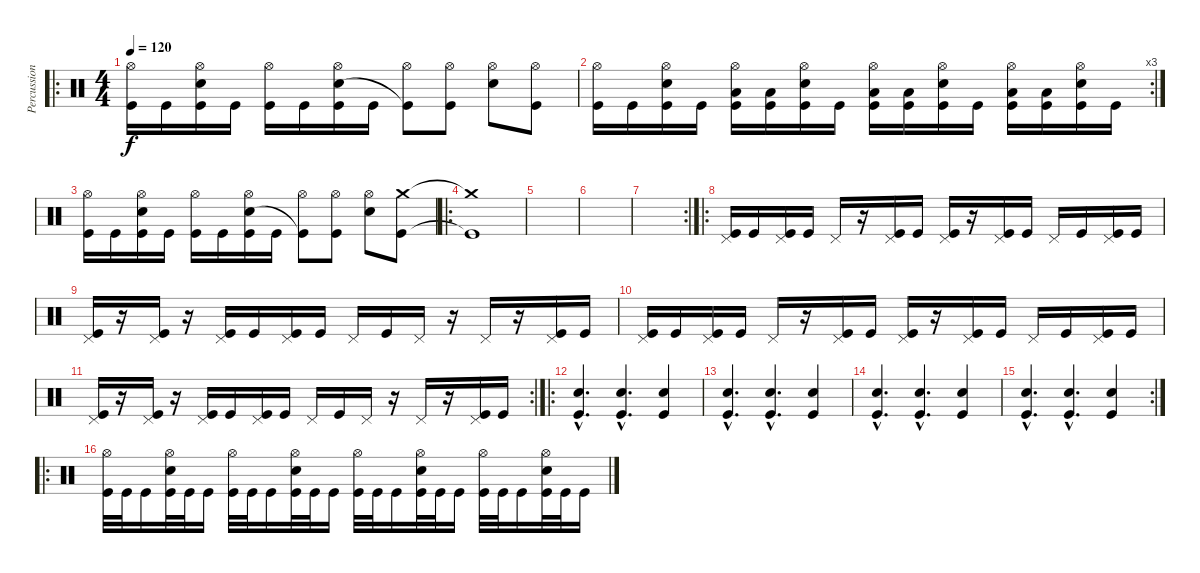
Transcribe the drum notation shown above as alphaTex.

\track ("Percussion" "Percussion") {instrument percussion}
\staff {score}
\articulation defaults
\ro
\ts (4 4)
\tempo 120
\clef neutral
\ks c
("Hi-Hat (open)" "Kick (hit)").16{dy f} "Kick (hit)".16 ("Hi-Hat (open)" "Snare (hit) 2" "Kick (hit)").16 "Kick (hit)".16 ("Hi-Hat (open)" "Kick (hit)").16 "Kick (hit)".16 ("Hi-Hat (open)" "Snare (hit) 2" "Kick (hit)").16 "Kick (hit)".16 ("Hi-Hat (open)" "Kick (hit)"{t}).8 ("Hi-Hat (open)" "Kick (hit)").8 ("Hi-Hat (open)" "Snare (hit) 2").8 ("Hi-Hat (open)" "Kick (hit)").8 |
\rc 3
("Hi-Hat (open)" "Kick (hit)").16 "Kick (hit)".16 ("Hi-Hat (open)" "Snare (hit) 2" "Kick (hit)").16 "Kick (hit)".16 ("Hi-Hat (open)" "Low Floor Tom (hit)" "Kick (hit)").16 ("Low Floor Tom (hit)" "Kick (hit)").16 ("Hi-Hat (open)" "Snare (hit) 2" "Kick (hit)").16 "Kick (hit)".16 ("Hi-Hat (open)" "Low Floor Tom (hit)" "Kick (hit)").16 ("Low Floor Tom (hit)" "Kick (hit)").16 ("Hi-Hat (open)" "Snare (hit) 2" "Kick (hit)").16 "Kick (hit)".16 ("Hi-Hat (open)" "Low Floor Tom (hit)" "Kick (hit)").16 ("Low Floor Tom (hit)" "Kick (hit)").16 ("Hi-Hat (open)" "Snare (hit) 2" "Kick (hit)").16 "Kick (hit)".16 |
("Hi-Hat (open)" "Kick (hit)").16 "Kick (hit)".16 ("Hi-Hat (open)" "Snare (hit) 2" "Kick (hit)").16 "Kick (hit)".16 ("Hi-Hat (open)" "Kick (hit)").16 "Kick (hit)".16 ("Hi-Hat (open)" "Snare (hit) 2" "Kick (hit)").16 "Kick (hit)".16 ("Hi-Hat (open)" "Kick (hit)"{t}).8 ("Hi-Hat (open)" "Kick (hit)").8 ("Hi-Hat (open)" "Snare (hit) 2").8 ("Crash medium (hit)" "Kick (hit)").8 |
\ro
("Crash medium (hit)"{t} "Kick (hit)"{t}).1 |
|
|
\rc 2
|
\ro
("Pedal Hi-Hat (hit)" "Kick (hit)").16 "Kick (hit)".16 ("Pedal Hi-Hat (hit)" "Kick (hit)").16 "Kick (hit)".16 "Pedal Hi-Hat (hit)".16 r.16 ("Pedal Hi-Hat (hit)" "Kick (hit)").16 "Kick (hit)".16 ("Pedal Hi-Hat (hit)" "Kick (hit)").16 r.16 ("Pedal Hi-Hat (hit)" "Kick (hit)").16 "Kick (hit)".16 "Pedal Hi-Hat (hit)".16 "Kick (hit)".16 ("Pedal Hi-Hat (hit)" "Kick (hit)").16 "Kick (hit)".16 |
("Pedal Hi-Hat (hit)" "Kick (hit)").16 r.16 ("Pedal Hi-Hat (hit)" "Kick (hit)").16 r.16 ("Pedal Hi-Hat (hit)" "Kick (hit)").16 "Kick (hit)".16 ("Pedal Hi-Hat (hit)" "Kick (hit)").16 "Kick (hit)".16 "Pedal Hi-Hat (hit)".16 "Kick (hit)".16 "Pedal Hi-Hat (hit)".16 r.16 "Pedal Hi-Hat (hit)".16 r.16 ("Pedal Hi-Hat (hit)" "Kick (hit)").16 "Kick (hit)".16 |
("Pedal Hi-Hat (hit)" "Kick (hit)").16 "Kick (hit)".16 ("Pedal Hi-Hat (hit)" "Kick (hit)").16 "Kick (hit)".16 "Pedal Hi-Hat (hit)".16 r.16 ("Pedal Hi-Hat (hit)" "Kick (hit)").16 "Kick (hit)".16 ("Pedal Hi-Hat (hit)" "Kick (hit)").16 r.16 ("Pedal Hi-Hat (hit)" "Kick (hit)").16 "Kick (hit)".16 "Pedal Hi-Hat (hit)".16 "Kick (hit)".16 ("Pedal Hi-Hat (hit)" "Kick (hit)").16 "Kick (hit)".16 |
\rc 2
("Pedal Hi-Hat (hit)" "Kick (hit)").16 r.16 ("Pedal Hi-Hat (hit)" "Kick (hit)").16 r.16 ("Pedal Hi-Hat (hit)" "Kick (hit)").16 "Kick (hit)".16 ("Pedal Hi-Hat (hit)" "Kick (hit)").16 "Kick (hit)".16 "Pedal Hi-Hat (hit)".16 "Kick (hit)".16 "Pedal Hi-Hat (hit)".16 r.16 "Pedal Hi-Hat (hit)".16 r.16 ("Pedal Hi-Hat (hit)" "Kick (hit)").16 "Kick (hit)".16 |
\ro
("Snare (hit) 2"{hac} "Kick (hit)"{hac}).4{d} ("Snare (hit) 2"{hac} "Kick (hit)"{hac}).4{d} ("Snare (hit) 2" "Kick (hit)").4 |
("Snare (hit) 2"{hac} "Kick (hit)"{hac}).4{d} ("Snare (hit) 2"{hac} "Kick (hit)"{hac}).4{d} ("Snare (hit) 2" "Kick (hit)").4 |
("Snare (hit) 2"{hac} "Kick (hit)"{hac}).4{d} ("Snare (hit) 2"{hac} "Kick (hit)"{hac}).4{d} ("Snare (hit) 2" "Kick (hit)").4 |
\rc 2
("Snare (hit) 2"{hac} "Kick (hit)"{hac}).4{d} ("Snare (hit) 2"{hac} "Kick (hit)"{hac}).4{d} ("Snare (hit) 2" "Kick (hit)").4 |
\ro
("Hi-Hat (open)" "Kick (hit)").32 "Kick (hit)".32 "Kick (hit)".16 ("Hi-Hat (open)" "Snare (hit) 2" "Kick (hit)").32 "Kick (hit)".32 "Kick (hit)".16 ("Hi-Hat (open)" "Kick (hit)").32 "Kick (hit)".32 "Kick (hit)".16 ("Hi-Hat (open)" "Snare (hit) 2" "Kick (hit)").32 "Kick (hit)".32 "Kick (hit)".16 ("Hi-Hat (open)" "Kick (hit)").32 "Kick (hit)".32 "Kick (hit)".16 ("Hi-Hat (open)" "Snare (hit) 2" "Kick (hit)").32 "Kick (hit)".32 "Kick (hit)".16 ("Hi-Hat (open)" "Kick (hit)").32 "Kick (hit)".32 "Kick (hit)".16 ("Hi-Hat (open)" "Snare (hit) 2" "Kick (hit)").32 "Kick (hit)".32 "Kick (hit)".16
